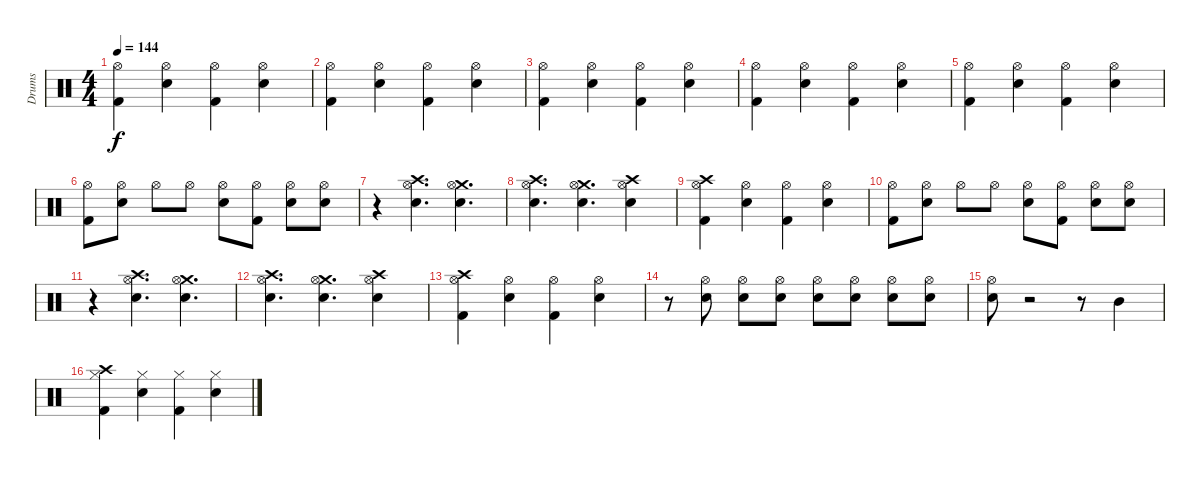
\track ("Drums" "Drums") {instrument percussion}
\staff {score}
\articulation defaults
\ts (4 4)
\tempo 144
\clef neutral
\ks c
("Hi-Hat (open)" "Kick (hit) 2").4{dy f} ("Hi-Hat (open)" "Electric Snare (hit)").4 ("Hi-Hat (open)" "Kick (hit) 2").4 ("Hi-Hat (open)" "Electric Snare (hit)").4 |
("Hi-Hat (open)" "Kick (hit) 2").4 ("Hi-Hat (open)" "Electric Snare (hit)").4 ("Hi-Hat (open)" "Kick (hit) 2").4 ("Hi-Hat (open)" "Electric Snare (hit)").4 |
("Hi-Hat (open)" "Kick (hit) 2").4 ("Hi-Hat (open)" "Electric Snare (hit)").4 ("Hi-Hat (open)" "Kick (hit) 2").4 ("Hi-Hat (open)" "Electric Snare (hit)").4 |
("Hi-Hat (open)" "Kick (hit) 2").4 ("Hi-Hat (open)" "Electric Snare (hit)").4 ("Hi-Hat (open)" "Kick (hit) 2").4 ("Hi-Hat (open)" "Electric Snare (hit)").4 |
("Hi-Hat (open)" "Kick (hit) 2").4 ("Hi-Hat (open)" "Electric Snare (hit)").4 ("Hi-Hat (open)" "Kick (hit) 2").4 ("Hi-Hat (open)" "Electric Snare (hit)").4 |
("Hi-Hat (open)" "Kick (hit) 2").8 ("Hi-Hat (open)" "Electric Snare (hit)").8 "Hi-Hat (open)".8 "Hi-Hat (open)".8 ("Hi-Hat (open)" "Electric Snare (hit)").8 ("Hi-Hat (open)" "Kick (hit) 2").8 ("Hi-Hat (open)" "Electric Snare (hit)").8 ("Hi-Hat (open)" "Electric Snare (hit)").8 |
r.4 ("Crash high (hit)" "Hi-Hat (open)" "Electric Snare (hit)").4{d} ("Crash medium (hit)" "Hi-Hat (open)" "Electric Snare (hit)").4{d} |
("Crash high (hit)" "Hi-Hat (open)" "Electric Snare (hit)").4{d} ("Crash medium (hit)" "Hi-Hat (open)" "Electric Snare (hit)").4{d} ("Crash high (hit)" "Hi-Hat (open)" "Electric Snare (hit)").4 |
("Crash high (hit)" "Hi-Hat (open)" "Kick (hit) 2").4 ("Hi-Hat (open)" "Electric Snare (hit)").4 ("Hi-Hat (open)" "Kick (hit) 2").4 ("Hi-Hat (open)" "Electric Snare (hit)").4 |
("Hi-Hat (open)" "Kick (hit) 2").8 ("Hi-Hat (open)" "Electric Snare (hit)").8 "Hi-Hat (open)".8 "Hi-Hat (open)".8 ("Hi-Hat (open)" "Electric Snare (hit)").8 ("Hi-Hat (open)" "Kick (hit) 2").8 ("Hi-Hat (open)" "Electric Snare (hit)").8 ("Hi-Hat (open)" "Electric Snare (hit)").8 |
r.4 ("Crash high (hit)" "Hi-Hat (open)" "Electric Snare (hit)").4{d} ("Crash medium (hit)" "Hi-Hat (open)" "Electric Snare (hit)").4{d} |
("Crash high (hit)" "Hi-Hat (open)" "Electric Snare (hit)").4{d} ("Crash medium (hit)" "Hi-Hat (open)" "Electric Snare (hit)").4{d} ("Crash high (hit)" "Hi-Hat (open)" "Electric Snare (hit)").4 |
("Crash high (hit)" "Hi-Hat (open)" "Kick (hit) 2").4 ("Hi-Hat (open)" "Electric Snare (hit)").4 ("Hi-Hat (open)" "Kick (hit) 2").4 ("Hi-Hat (open)" "Electric Snare (hit)").4 |
r.8 ("Hi-Hat (open)" "Electric Snare (hit)").8 ("Hi-Hat (open)" "Electric Snare (hit)").8 ("Hi-Hat (open)" "Electric Snare (hit)").8 ("Hi-Hat (open)" "Electric Snare (hit)").8 ("Hi-Hat (open)" "Electric Snare (hit)").8 ("Hi-Hat (open)" "Electric Snare (hit)").8 ("Hi-Hat (open)" "Electric Snare (hit)").8 |
("Hi-Hat (open)" "Electric Snare (hit)").8 r.2 r.8 "Mid Tom (hit)".4 |
("Crash high (hit)" "Hi-Hat (closed)" "Kick (hit) 2").4 ("Hi-Hat (closed)" "Electric Snare (hit)").4 ("Hi-Hat (closed)" "Kick (hit) 2").4 ("Hi-Hat (closed)" "Electric Snare (hit)").4
